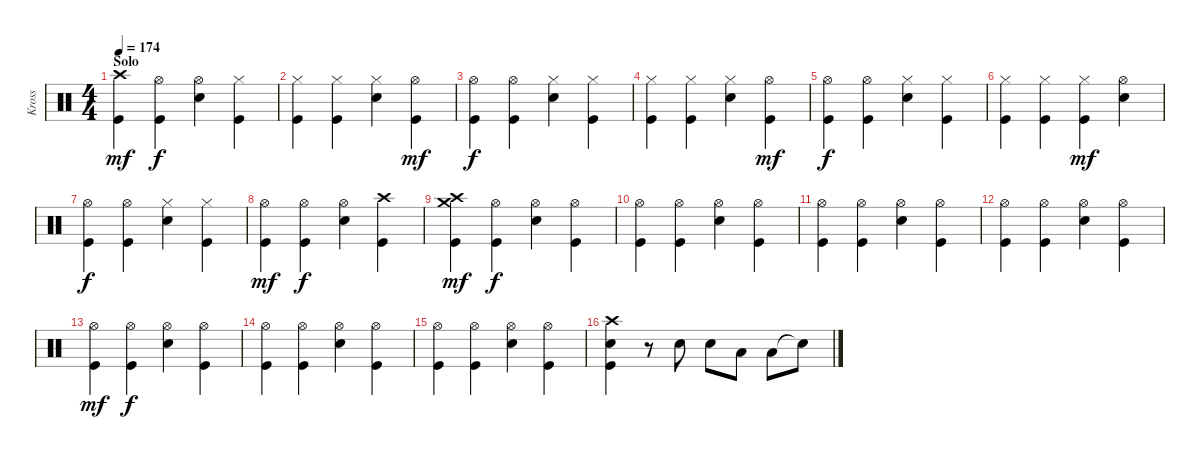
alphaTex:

\track ("Kross" "Kross") {instrument percussion}
\staff {score}
\articulation defaults
\ts (4 4)
\section ("" "Solo")
\tempo 174
\clef neutral
\ks c
("Crash high (hit)" "Kick (hit)").4{dy mf} ("Hi-Hat (open)" "Kick (hit)").4{dy f} ("Hi-Hat (open)" "Snare (hit) 2").4 ("Hi-Hat (closed)" "Kick (hit)").4 |
("Hi-Hat (closed)" "Kick (hit)").4 ("Hi-Hat (closed)" "Kick (hit)").4 ("Hi-Hat (closed)" "Snare (hit) 2").4 ("Hi-Hat (open)" "Kick (hit)").4{dy mf} |
("Hi-Hat (open)" "Kick (hit)").4{dy f} ("Hi-Hat (open)" "Kick (hit)").4 ("Hi-Hat (closed)" "Snare (hit) 2").4 ("Hi-Hat (closed)" "Kick (hit)").4 |
("Hi-Hat (closed)" "Kick (hit)").4 ("Hi-Hat (closed)" "Kick (hit)").4 ("Hi-Hat (closed)" "Snare (hit) 2").4 ("Hi-Hat (open)" "Kick (hit)").4{dy mf} |
("Hi-Hat (open)" "Kick (hit)").4{dy f} ("Hi-Hat (open)" "Kick (hit)").4 ("Hi-Hat (closed)" "Snare (hit) 2").4 ("Hi-Hat (closed)" "Kick (hit)").4 |
("Hi-Hat (closed)" "Kick (hit)").4 ("Hi-Hat (closed)" "Kick (hit)").4 ("Hi-Hat (closed)" "Kick (hit)").4{dy mf} ("Hi-Hat (open)" "Snare (hit) 2").4 |
("Hi-Hat (open)" "Kick (hit)").4{dy f} ("Hi-Hat (open)" "Kick (hit)").4 ("Hi-Hat (closed)" "Snare (hit) 2").4 ("Hi-Hat (closed)" "Kick (hit)").4 |
("Hi-Hat (open)" "Kick (hit)").4{dy mf} ("Hi-Hat (open)" "Kick (hit)").4{dy f} ("Hi-Hat (open)" "Snare (hit) 2").4 ("Crash high (hit)" "Kick (hit)").4 |
("Crash medium (hit)" "Crash high (hit)" "Kick (hit)").4{dy mf} ("Hi-Hat (open)" "Kick (hit)").4{dy f} ("Hi-Hat (open)" "Snare (hit) 2").4 ("Hi-Hat (open)" "Kick (hit)").4 |
("Hi-Hat (open)" "Kick (hit)").4 ("Hi-Hat (open)" "Kick (hit)").4 ("Hi-Hat (open)" "Snare (hit) 2").4 ("Hi-Hat (open)" "Kick (hit)").4 |
("Hi-Hat (open)" "Kick (hit)").4 ("Hi-Hat (open)" "Kick (hit)").4 ("Hi-Hat (open)" "Snare (hit) 2").4 ("Hi-Hat (open)" "Kick (hit)").4 |
("Hi-Hat (open)" "Kick (hit)").4 ("Hi-Hat (open)" "Kick (hit)").4 ("Hi-Hat (open)" "Snare (hit) 2").4 ("Hi-Hat (open)" "Kick (hit)").4 |
("Hi-Hat (open)" "Kick (hit)").4{dy mf} ("Hi-Hat (open)" "Kick (hit)").4{dy f} ("Hi-Hat (open)" "Snare (hit) 2").4 ("Hi-Hat (open)" "Kick (hit)").4 |
("Hi-Hat (open)" "Kick (hit)").4 ("Hi-Hat (open)" "Kick (hit)").4 ("Hi-Hat (open)" "Snare (hit) 2").4 ("Hi-Hat (open)" "Kick (hit)").4 |
("Hi-Hat (open)" "Kick (hit)").4 ("Hi-Hat (open)" "Kick (hit)").4 ("Hi-Hat (open)" "Snare (hit) 2").4 ("Hi-Hat (open)" "Kick (hit)").4 |
("Crash high (hit)" "Snare (hit) 2" "Kick (hit)").4 r.8 "Snare (hit) 2".8 "Snare (hit) 2".8 "Low Tom (hit)".8 "Low Floor Tom (hit)".8 "Snare (hit)"{t}.8
